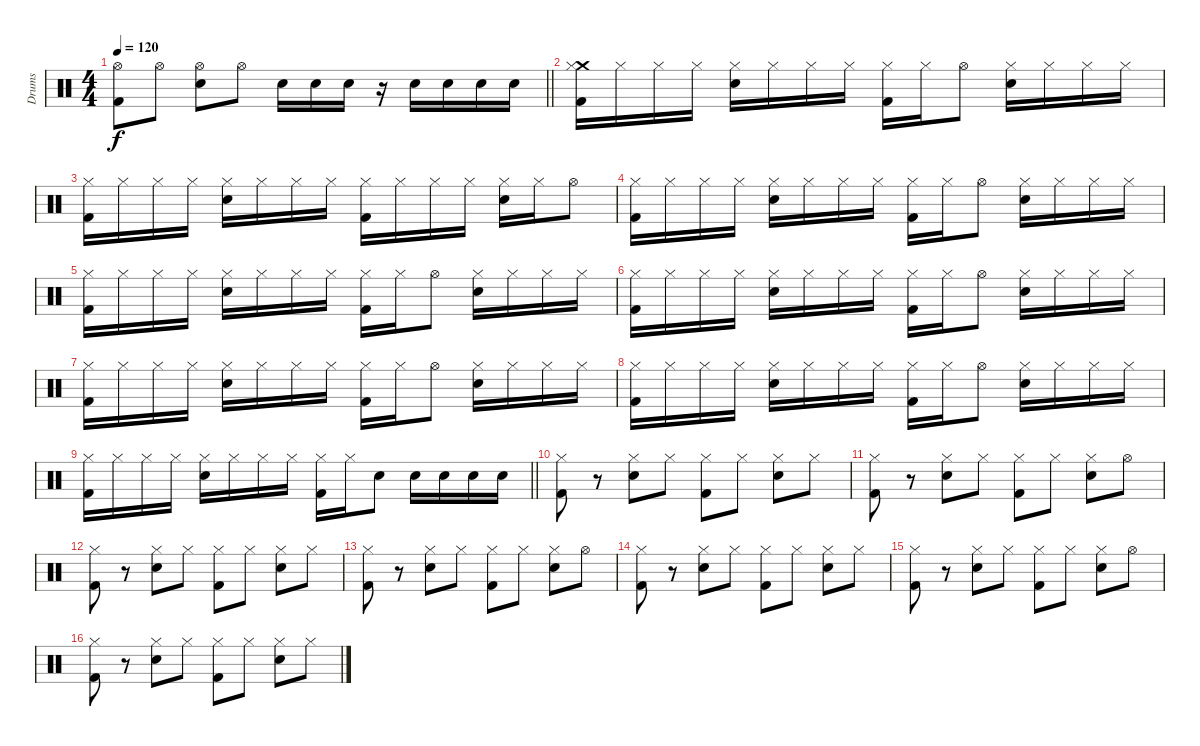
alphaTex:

\track ("Drums" "Drums") {instrument percussion}
\staff
\articulation defaults
\ts (4 4)
\tempo 120
\clef neutral
\barLineRight lightlight
\ks c
("Hi-Hat (open)" "Kick (hit) 2").8{dy f} "Hi-Hat (open)".8 ("Hi-Hat (open)" "Snare (hit) 2").8 "Hi-Hat (open)".8 "Snare (hit) 2".16 "Snare (hit) 2".16 "Snare (hit) 2".16 r.16 "Snare (hit) 2".16 "Snare (hit) 2".16 "Snare (hit) 2".16 "Snare (hit) 2".16 |
("Crash medium (hit)" "Hi-Hat (closed)" "Kick (hit) 2").16 "Hi-Hat (closed)".16 "Hi-Hat (closed)".16 "Hi-Hat (closed)".16 ("Hi-Hat (closed)" "Snare (hit) 2").16 "Hi-Hat (closed)".16 "Hi-Hat (closed)".16 "Hi-Hat (closed)".16 ("Hi-Hat (closed)" "Kick (hit) 2").16 "Hi-Hat (closed)".16 "Hi-Hat (open)".8 ("Hi-Hat (closed)" "Snare (hit) 2").16 "Hi-Hat (closed)".16 "Hi-Hat (closed)".16 "Hi-Hat (closed)".16 |
("Hi-Hat (closed)" "Kick (hit) 2").16 "Hi-Hat (closed)".16 "Hi-Hat (closed)".16 "Hi-Hat (closed)".16 ("Hi-Hat (closed)" "Snare (hit) 2").16 "Hi-Hat (closed)".16 "Hi-Hat (closed)".16 "Hi-Hat (closed)".16 ("Hi-Hat (closed)" "Kick (hit) 2").16 "Hi-Hat (closed)".16 "Hi-Hat (closed)".16 "Hi-Hat (closed)".16 ("Hi-Hat (closed)" "Snare (hit) 2").16 "Hi-Hat (closed)".16 "Hi-Hat (open)".8 |
("Hi-Hat (closed)" "Kick (hit) 2").16 "Hi-Hat (closed)".16 "Hi-Hat (closed)".16 "Hi-Hat (closed)".16 ("Hi-Hat (closed)" "Snare (hit) 2").16 "Hi-Hat (closed)".16 "Hi-Hat (closed)".16 "Hi-Hat (closed)".16 ("Hi-Hat (closed)" "Kick (hit) 2").16 "Hi-Hat (closed)".16 "Hi-Hat (open)".8 ("Hi-Hat (closed)" "Snare (hit) 2").16 "Hi-Hat (closed)".16 "Hi-Hat (closed)".16 "Hi-Hat (closed)".16 |
("Hi-Hat (closed)" "Kick (hit) 2").16 "Hi-Hat (closed)".16 "Hi-Hat (closed)".16 "Hi-Hat (closed)".16 ("Hi-Hat (closed)" "Snare (hit) 2").16 "Hi-Hat (closed)".16 "Hi-Hat (closed)".16 "Hi-Hat (closed)".16 ("Hi-Hat (closed)" "Kick (hit) 2").16 "Hi-Hat (closed)".16 "Hi-Hat (open)".8 ("Hi-Hat (closed)" "Snare (hit) 2").16 "Hi-Hat (closed)".16 "Hi-Hat (closed)".16 "Hi-Hat (closed)".16 |
("Hi-Hat (closed)" "Kick (hit) 2").16 "Hi-Hat (closed)".16 "Hi-Hat (closed)".16 "Hi-Hat (closed)".16 ("Hi-Hat (closed)" "Snare (hit) 2").16 "Hi-Hat (closed)".16 "Hi-Hat (closed)".16 "Hi-Hat (closed)".16 ("Hi-Hat (closed)" "Kick (hit) 2").16 "Hi-Hat (closed)".16 "Hi-Hat (open)".8 ("Hi-Hat (closed)" "Snare (hit) 2").16 "Hi-Hat (closed)".16 "Hi-Hat (closed)".16 "Hi-Hat (closed)".16 |
("Hi-Hat (closed)" "Kick (hit) 2").16 "Hi-Hat (closed)".16 "Hi-Hat (closed)".16 "Hi-Hat (closed)".16 ("Hi-Hat (closed)" "Snare (hit) 2").16 "Hi-Hat (closed)".16 "Hi-Hat (closed)".16 "Hi-Hat (closed)".16 ("Hi-Hat (closed)" "Kick (hit) 2").16 "Hi-Hat (closed)".16 "Hi-Hat (open)".8 ("Hi-Hat (closed)" "Snare (hit) 2").16 "Hi-Hat (closed)".16 "Hi-Hat (closed)".16 "Hi-Hat (closed)".16 |
("Hi-Hat (closed)" "Kick (hit) 2").16 "Hi-Hat (closed)".16 "Hi-Hat (closed)".16 "Hi-Hat (closed)".16 ("Hi-Hat (closed)" "Snare (hit) 2").16 "Hi-Hat (closed)".16 "Hi-Hat (closed)".16 "Hi-Hat (closed)".16 ("Hi-Hat (closed)" "Kick (hit) 2").16 "Hi-Hat (closed)".16 "Hi-Hat (open)".8 ("Hi-Hat (closed)" "Snare (hit) 2").16 "Hi-Hat (closed)".16 "Hi-Hat (closed)".16 "Hi-Hat (closed)".16 |
\barLineRight lightlight
("Hi-Hat (closed)" "Kick (hit) 2").16 "Hi-Hat (closed)".16 "Hi-Hat (closed)".16 "Hi-Hat (closed)".16 ("Hi-Hat (closed)" "Snare (hit) 2").16 "Hi-Hat (closed)".16 "Hi-Hat (closed)".16 "Hi-Hat (closed)".16 ("Hi-Hat (closed)" "Kick (hit) 2").16 "Hi-Hat (closed)".16 "Snare (hit) 2".8 "Snare (hit) 2".16 "Snare (hit) 2".16 "Snare (hit) 2".16 "Snare (hit) 2".16 |
("Hi-Hat (closed)" "Kick (hit) 2").8 r.8 ("Hi-Hat (closed)" "Snare (hit) 2").8 "Hi-Hat (closed)".8 ("Hi-Hat (closed)" "Kick (hit) 2").8 "Hi-Hat (closed)".8 ("Hi-Hat (closed)" "Snare (hit) 2").8 "Hi-Hat (closed)".8 |
("Hi-Hat (closed)" "Kick (hit) 2").8 r.8 ("Hi-Hat (closed)" "Snare (hit) 2").8 "Hi-Hat (closed)".8 ("Hi-Hat (closed)" "Kick (hit) 2").8 "Hi-Hat (closed)".8 ("Hi-Hat (closed)" "Snare (hit) 2").8 "Hi-Hat (open)".8 |
("Hi-Hat (closed)" "Kick (hit) 2").8 r.8 ("Hi-Hat (closed)" "Snare (hit) 2").8 "Hi-Hat (closed)".8 ("Hi-Hat (closed)" "Kick (hit) 2").8 "Hi-Hat (closed)".8 ("Hi-Hat (closed)" "Snare (hit) 2").8 "Hi-Hat (closed)".8 |
("Hi-Hat (closed)" "Kick (hit) 2").8 r.8 ("Hi-Hat (closed)" "Snare (hit) 2").8 "Hi-Hat (closed)".8 ("Hi-Hat (closed)" "Kick (hit) 2").8 "Hi-Hat (closed)".8 ("Hi-Hat (closed)" "Snare (hit) 2").8 "Hi-Hat (open)".8 |
("Hi-Hat (closed)" "Kick (hit) 2").8 r.8 ("Hi-Hat (closed)" "Snare (hit) 2").8 "Hi-Hat (closed)".8 ("Hi-Hat (closed)" "Kick (hit) 2").8 "Hi-Hat (closed)".8 ("Hi-Hat (closed)" "Snare (hit) 2").8 "Hi-Hat (closed)".8 |
("Hi-Hat (closed)" "Kick (hit) 2").8 r.8 ("Hi-Hat (closed)" "Snare (hit) 2").8 "Hi-Hat (closed)".8 ("Hi-Hat (closed)" "Kick (hit) 2").8 "Hi-Hat (closed)".8 ("Hi-Hat (closed)" "Snare (hit) 2").8 "Hi-Hat (open)".8 |
("Hi-Hat (closed)" "Kick (hit) 2").8 r.8 ("Hi-Hat (closed)" "Snare (hit) 2").8 "Hi-Hat (closed)".8 ("Hi-Hat (closed)" "Kick (hit) 2").8 "Hi-Hat (closed)".8 ("Hi-Hat (closed)" "Snare (hit) 2").8 "Hi-Hat (closed)".8
